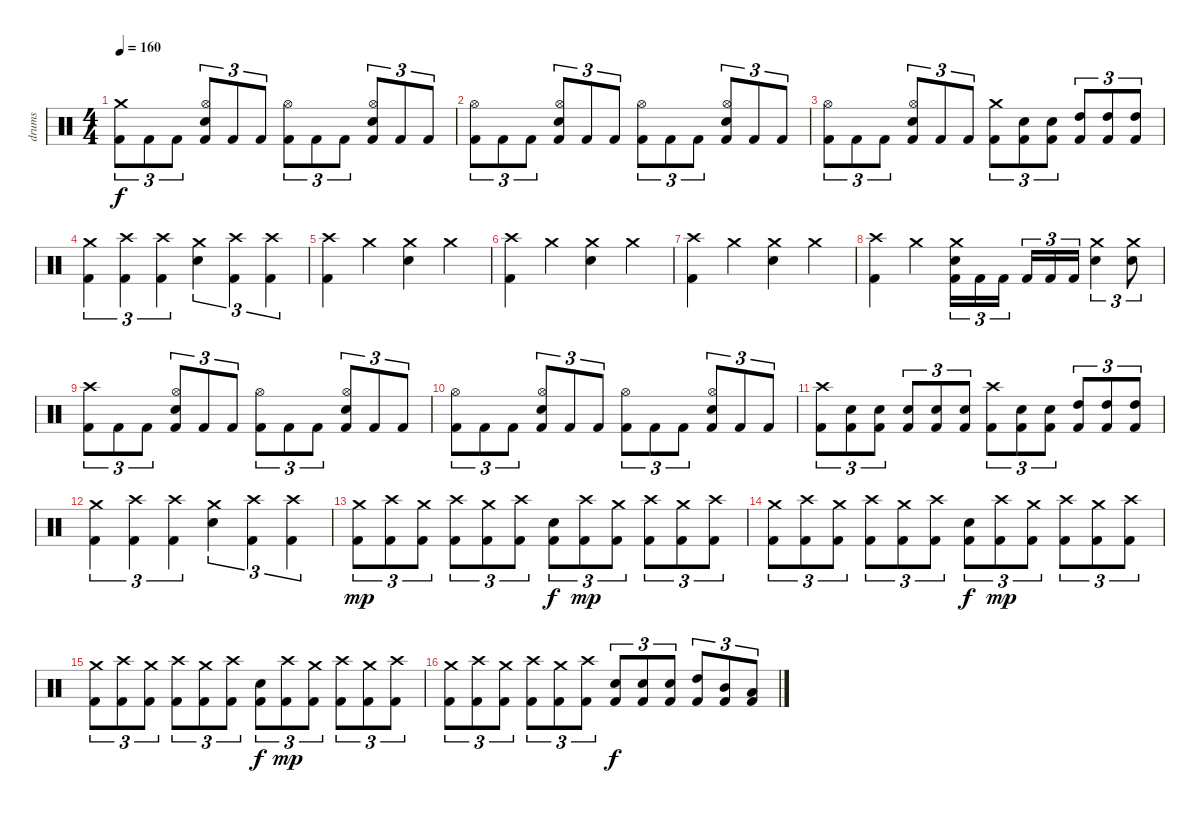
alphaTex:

\track ("drums" "drums") {instrument percussion}
\staff {score}
\articulation defaults
\ts (4 4)
\tempo 160
\clef neutral
\ks c
("Crash medium (hit)" "Kick (hit) 2").8{tu (3 2) dy f} "Kick (hit) 2".8{tu (3 2)} "Kick (hit) 2".8{tu (3 2)} ("Hi-Hat (open)" "Electric Snare (hit)" "Kick (hit) 2").8{tu (3 2)} "Kick (hit) 2".8{tu (3 2)} "Kick (hit) 2".8{tu (3 2)} ("Hi-Hat (open)" "Kick (hit) 2").8{tu (3 2)} "Kick (hit) 2".8{tu (3 2)} "Kick (hit) 2".8{tu (3 2)} ("Hi-Hat (open)" "Electric Snare (hit)" "Kick (hit) 2").8{tu (3 2)} "Kick (hit) 2".8{tu (3 2)} "Kick (hit) 2".8{tu (3 2)} |
("Hi-Hat (open)" "Kick (hit) 2").8{tu (3 2)} "Kick (hit) 2".8{tu (3 2)} "Kick (hit) 2".8{tu (3 2)} ("Hi-Hat (open)" "Electric Snare (hit)" "Kick (hit) 2").8{tu (3 2)} "Kick (hit) 2".8{tu (3 2)} "Kick (hit) 2".8{tu (3 2)} ("Hi-Hat (open)" "Kick (hit) 2").8{tu (3 2)} "Kick (hit) 2".8{tu (3 2)} "Kick (hit) 2".8{tu (3 2)} ("Hi-Hat (open)" "Electric Snare (hit)" "Kick (hit) 2").8{tu (3 2)} "Kick (hit) 2".8{tu (3 2)} "Kick (hit) 2".8{tu (3 2)} |
("Hi-Hat (open)" "Kick (hit) 2").8{tu (3 2)} "Kick (hit) 2".8{tu (3 2)} "Kick (hit) 2".8{tu (3 2)} ("Hi-Hat (open)" "Electric Snare (hit)" "Kick (hit) 2").8{tu (3 2)} "Kick (hit) 2".8{tu (3 2)} "Kick (hit) 2".8{tu (3 2)} ("Crash medium (hit)" "Kick (hit) 2").8{tu (3 2)} ("Electric Snare (hit)" "Kick (hit) 2").8{tu (3 2)} ("Electric Snare (hit)" "Kick (hit) 2").8{tu (3 2)} ("High Tom (hit)" "Kick (hit) 2").8{tu (3 2)} ("High Tom (hit)" "Kick (hit) 2").8{tu (3 2)} ("High Tom (hit)" "Kick (hit) 2").8{tu (3 2)} |
("Crash medium (hit)" "Kick (hit) 2").4{tu (3 2)} ("Crash high (hit)" "Kick (hit) 2").4{tu (3 2)} ("Crash high (hit)" "Kick (hit) 2").4{tu (3 2)} ("Crash medium (hit)" "Electric Snare (hit)").4{tu (3 2)} ("Crash high (hit)" "Kick (hit) 2").4{tu (3 2)} ("Crash high (hit)" "Kick (hit) 2").4{tu (3 2)} |
("Crash high (hit)" "Kick (hit) 2").4 "Crash medium (hit)".4 ("Crash medium (hit)" "Electric Snare (hit)").4 "Crash medium (hit)".4 |
("Crash high (hit)" "Kick (hit) 2").4 "Crash medium (hit)".4 ("Crash medium (hit)" "Electric Snare (hit)").4 "Crash medium (hit)".4 |
("Crash high (hit)" "Kick (hit) 2").4 "Crash medium (hit)".4 ("Crash medium (hit)" "Electric Snare (hit)").4 "Crash medium (hit)".4 |
("Crash high (hit)" "Kick (hit) 2").4 "Crash medium (hit)".4 ("Crash medium (hit)" "Electric Snare (hit)" "Kick (hit) 2").16{tu (3 2)} "Kick (hit) 2".16{tu (3 2)} "Kick (hit) 2".16{tu (3 2)} "Kick (hit) 2".16{tu (3 2)} "Kick (hit) 2".16{tu (3 2)} "Kick (hit) 2".16{tu (3 2)} ("Crash medium (hit)" "Electric Snare (hit)").4{tu (3 2)} ("Crash medium (hit)" "Electric Snare (hit)").8{tu (3 2)} |
("Crash high (hit)" "Kick (hit) 2").8{tu (3 2)} "Kick (hit) 2".8{tu (3 2)} "Kick (hit) 2".8{tu (3 2)} ("Hi-Hat (open)" "Electric Snare (hit)" "Kick (hit) 2").8{tu (3 2)} "Kick (hit) 2".8{tu (3 2)} "Kick (hit) 2".8{tu (3 2)} ("Hi-Hat (open)" "Kick (hit) 2").8{tu (3 2)} "Kick (hit) 2".8{tu (3 2)} "Kick (hit) 2".8{tu (3 2)} ("Hi-Hat (open)" "Electric Snare (hit)" "Kick (hit) 2").8{tu (3 2)} "Kick (hit) 2".8{tu (3 2)} "Kick (hit) 2".8{tu (3 2)} |
("Hi-Hat (open)" "Kick (hit) 2").8{tu (3 2)} "Kick (hit) 2".8{tu (3 2)} "Kick (hit) 2".8{tu (3 2)} ("Hi-Hat (open)" "Electric Snare (hit)" "Kick (hit) 2").8{tu (3 2)} "Kick (hit) 2".8{tu (3 2)} "Kick (hit) 2".8{tu (3 2)} ("Hi-Hat (open)" "Kick (hit) 2").8{tu (3 2)} "Kick (hit) 2".8{tu (3 2)} "Kick (hit) 2".8{tu (3 2)} ("Hi-Hat (open)" "Electric Snare (hit)" "Kick (hit) 2").8{tu (3 2)} "Kick (hit) 2".8{tu (3 2)} "Kick (hit) 2".8{tu (3 2)} |
("Crash high (hit)" "Kick (hit) 2").8{tu (3 2)} ("Electric Snare (hit)" "Kick (hit) 2").8{tu (3 2)} ("Electric Snare (hit)" "Kick (hit) 2").8{tu (3 2)} ("Electric Snare (hit)" "Kick (hit) 2").8{tu (3 2)} ("Electric Snare (hit)" "Kick (hit) 2").8{tu (3 2)} ("Electric Snare (hit)" "Kick (hit) 2").8{tu (3 2)} ("Crash high (hit)" "Kick (hit) 2").8{tu (3 2)} ("Electric Snare (hit)" "Kick (hit) 2").8{tu (3 2)} ("Electric Snare (hit)" "Kick (hit) 2").8{tu (3 2)} ("High Tom (hit)" "Kick (hit) 2").8{tu (3 2)} ("High Tom (hit)" "Kick (hit) 2").8{tu (3 2)} ("High Tom (hit)" "Kick (hit) 2").8{tu (3 2)} |
("Crash medium (hit)" "Kick (hit) 2").4{tu (3 2)} ("Crash high (hit)" "Kick (hit) 2").4{tu (3 2)} ("Crash high (hit)" "Kick (hit) 2").4{tu (3 2)} ("Crash medium (hit)" "Electric Snare (hit)").4{tu (3 2)} ("Crash high (hit)" "Kick (hit) 2").4{tu (3 2)} ("Crash high (hit)" "Kick (hit) 2").4{tu (3 2)} |
("Crash medium (hit)" "Kick (hit) 2").8{tu (3 2) dy mp} ("Crash high (hit)" "Kick (hit) 2").8{tu (3 2)} ("Crash medium (hit)" "Kick (hit) 2").8{tu (3 2)} ("Crash high (hit)" "Kick (hit) 2").8{tu (3 2)} ("Crash medium (hit)" "Kick (hit) 2").8{tu (3 2)} ("Crash high (hit)" "Kick (hit) 2").8{tu (3 2)} ("Electric Snare (hit)" "Kick (hit) 2").8{tu (3 2) dy f} ("Crash high (hit)" "Kick (hit) 2").8{tu (3 2) dy mp} ("Crash medium (hit)" "Kick (hit) 2").8{tu (3 2)} ("Crash high (hit)" "Kick (hit) 2").8{tu (3 2)} ("Crash medium (hit)" "Kick (hit) 2").8{tu (3 2)} ("Crash high (hit)" "Kick (hit) 2").8{tu (3 2)} |
("Crash medium (hit)" "Kick (hit) 2").8{tu (3 2)} ("Crash high (hit)" "Kick (hit) 2").8{tu (3 2)} ("Crash medium (hit)" "Kick (hit) 2").8{tu (3 2)} ("Crash high (hit)" "Kick (hit) 2").8{tu (3 2)} ("Crash medium (hit)" "Kick (hit) 2").8{tu (3 2)} ("Crash high (hit)" "Kick (hit) 2").8{tu (3 2)} ("Electric Snare (hit)" "Kick (hit) 2").8{tu (3 2) dy f} ("Crash high (hit)" "Kick (hit) 2").8{tu (3 2) dy mp} ("Crash medium (hit)" "Kick (hit) 2").8{tu (3 2)} ("Crash high (hit)" "Kick (hit) 2").8{tu (3 2)} ("Crash medium (hit)" "Kick (hit) 2").8{tu (3 2)} ("Crash high (hit)" "Kick (hit) 2").8{tu (3 2)} |
("Crash medium (hit)" "Kick (hit) 2").8{tu (3 2)} ("Crash high (hit)" "Kick (hit) 2").8{tu (3 2)} ("Crash medium (hit)" "Kick (hit) 2").8{tu (3 2)} ("Crash high (hit)" "Kick (hit) 2").8{tu (3 2)} ("Crash medium (hit)" "Kick (hit) 2").8{tu (3 2)} ("Crash high (hit)" "Kick (hit) 2").8{tu (3 2)} ("Electric Snare (hit)" "Kick (hit) 2").8{tu (3 2) dy f} ("Crash high (hit)" "Kick (hit) 2").8{tu (3 2) dy mp} ("Crash medium (hit)" "Kick (hit) 2").8{tu (3 2)} ("Crash high (hit)" "Kick (hit) 2").8{tu (3 2)} ("Crash medium (hit)" "Kick (hit) 2").8{tu (3 2)} ("Crash high (hit)" "Kick (hit) 2").8{tu (3 2)} |
("Crash medium (hit)" "Kick (hit) 2").8{tu (3 2)} ("Crash high (hit)" "Kick (hit) 2").8{tu (3 2)} ("Crash medium (hit)" "Kick (hit) 2").8{tu (3 2)} ("Crash high (hit)" "Kick (hit) 2").8{tu (3 2)} ("Crash medium (hit)" "Kick (hit) 2").8{tu (3 2)} ("Crash high (hit)" "Kick (hit) 2").8{tu (3 2)} ("Electric Snare (hit)" "Kick (hit) 2").8{tu (3 2) dy f} ("Electric Snare (hit)" "Kick (hit) 2").8{tu (3 2)} ("Electric Snare (hit)" "Kick (hit) 2").8{tu (3 2)} ("High Tom (hit)" "Kick (hit) 2").8{tu (3 2)} ("Mid Tom (hit)" "Kick (hit) 2").8{tu (3 2)} ("Low Tom (hit)" "Kick (hit) 2").8{tu (3 2)}
